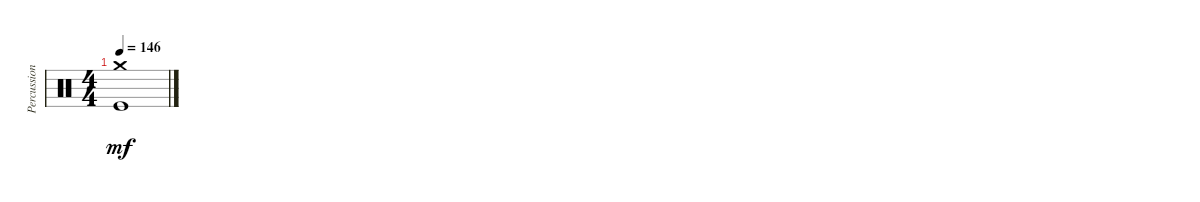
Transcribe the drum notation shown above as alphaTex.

\track ("Percussions" "Percussion") {instrument percussion}
\staff {score}
\articulation defaults
\ts (4 4)
\tempo 146
\clef neutral
\ks c
("Kick (hit)" "Crash medium (hit)").1{dy mf}
